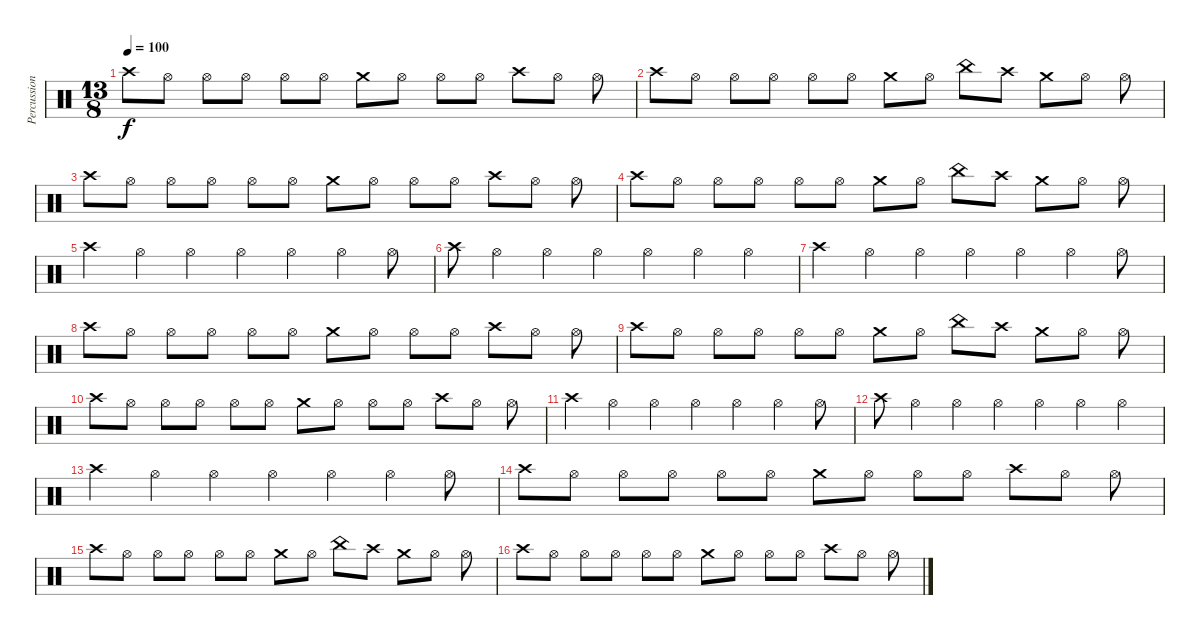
\track ("Percussion" "Percussion") {instrument percussion}
\staff {score}
\articulation defaults
\ts (13 8)
\tempo 100
\clef neutral
\ks c "Crash high (hit)".8{dy f} "Hi-Hat (open)".8 "Hi-Hat (open)".8 "Hi-Hat (open)".8 "Hi-Hat (open)".8 "Hi-Hat (open)".8 "Crash medium (hit)".8 "Hi-Hat (open)".8 "Hi-Hat (open)".8 "Hi-Hat (open)".8 "Crash high (hit)".8 "Hi-Hat (open)".8 "Hi-Hat (open)".8
|
"Crash high (hit)".8 "Hi-Hat (open)".8 "Hi-Hat (open)".8 "Hi-Hat (open)".8 "Hi-Hat (open)".8 "Hi-Hat (open)".8 "Crash medium (hit)".8 "Hi-Hat (open)".8 "China (hit)".8 "Crash high (hit)".8 "Crash medium (hit)".8 "Hi-Hat (open)".8 "Hi-Hat (open)".8 |
"Crash high (hit)".8 "Hi-Hat (open)".8 "Hi-Hat (open)".8 "Hi-Hat (open)".8 "Hi-Hat (open)".8 "Hi-Hat (open)".8 "Crash medium (hit)".8 "Hi-Hat (open)".8 "Hi-Hat (open)".8 "Hi-Hat (open)".8 "Crash high (hit)".8 "Hi-Hat (open)".8 "Hi-Hat (open)".8 |
"Crash high (hit)".8 "Hi-Hat (open)".8 "Hi-Hat (open)".8 "Hi-Hat (open)".8 "Hi-Hat (open)".8 "Hi-Hat (open)".8 "Crash medium (hit)".8 "Hi-Hat (open)".8 "China (hit)".8 "Crash high (hit)".8 "Crash medium (hit)".8 "Hi-Hat (open)".8 "Hi-Hat (open)".8 |
"Crash high (hit)".4 "Hi-Hat (open)".4 "Hi-Hat (open)".4 "Hi-Hat (open)".4 "Hi-Hat (open)".4 "Hi-Hat (open)".4 "Hi-Hat (open)".8 |
"Crash high (hit)".8 "Hi-Hat (open)".4 "Hi-Hat (open)".4 "Hi-Hat (open)".4 "Hi-Hat (open)".4 "Hi-Hat (open)".4 "Hi-Hat (open)".4 |
"Crash high (hit)".4 "Hi-Hat (open)".4 "Hi-Hat (open)".4 "Hi-Hat (open)".4 "Hi-Hat (open)".4 "Hi-Hat (open)".4 "Hi-Hat (open)".8 |
"Crash high (hit)".8 "Hi-Hat (open)".8 "Hi-Hat (open)".8 "Hi-Hat (open)".8 "Hi-Hat (open)".8 "Hi-Hat (open)".8 "Crash medium (hit)".8 "Hi-Hat (open)".8 "Hi-Hat (open)".8 "Hi-Hat (open)".8 "Crash high (hit)".8 "Hi-Hat (open)".8 "Hi-Hat (open)".8 |
"Crash high (hit)".8 "Hi-Hat (open)".8 "Hi-Hat (open)".8 "Hi-Hat (open)".8 "Hi-Hat (open)".8 "Hi-Hat (open)".8 "Crash medium (hit)".8 "Hi-Hat (open)".8 "China (hit)".8 "Crash high (hit)".8 "Crash medium (hit)".8 "Hi-Hat (open)".8 "Hi-Hat (open)".8 |
"Crash high (hit)".8 "Hi-Hat (open)".8 "Hi-Hat (open)".8 "Hi-Hat (open)".8 "Hi-Hat (open)".8 "Hi-Hat (open)".8 "Crash medium (hit)".8 "Hi-Hat (open)".8 "Hi-Hat (open)".8 "Hi-Hat (open)".8 "Crash high (hit)".8 "Hi-Hat (open)".8 "Hi-Hat (open)".8 |
"Crash high (hit)".4 "Hi-Hat (open)".4 "Hi-Hat (open)".4 "Hi-Hat (open)".4 "Hi-Hat (open)".4 "Hi-Hat (open)".4 "Hi-Hat (open)".8 |
"Crash high (hit)".8 "Hi-Hat (open)".4 "Hi-Hat (open)".4 "Hi-Hat (open)".4 "Hi-Hat (open)".4 "Hi-Hat (open)".4 "Hi-Hat (open)".4 |
"Crash high (hit)".4 "Hi-Hat (open)".4 "Hi-Hat (open)".4 "Hi-Hat (open)".4 "Hi-Hat (open)".4 "Hi-Hat (open)".4 "Hi-Hat (open)".8 |
"Crash high (hit)".8 "Hi-Hat (open)".8 "Hi-Hat (open)".8 "Hi-Hat (open)".8 "Hi-Hat (open)".8 "Hi-Hat (open)".8 "Crash medium (hit)".8 "Hi-Hat (open)".8 "Hi-Hat (open)".8 "Hi-Hat (open)".8 "Crash high (hit)".8 "Hi-Hat (open)".8 "Hi-Hat (open)".8 |
"Crash high (hit)".8 "Hi-Hat (open)".8 "Hi-Hat (open)".8 "Hi-Hat (open)".8 "Hi-Hat (open)".8 "Hi-Hat (open)".8 "Crash medium (hit)".8 "Hi-Hat (open)".8 "China (hit)".8 "Crash high (hit)".8 "Crash medium (hit)".8 "Hi-Hat (open)".8 "Hi-Hat (open)".8 |
"Crash high (hit)".8 "Hi-Hat (open)".8 "Hi-Hat (open)".8 "Hi-Hat (open)".8 "Hi-Hat (open)".8 "Hi-Hat (open)".8 "Crash medium (hit)".8 "Hi-Hat (open)".8 "Hi-Hat (open)".8 "Hi-Hat (open)".8 "Crash high (hit)".8 "Hi-Hat (open)".8 "Hi-Hat (open)".8
